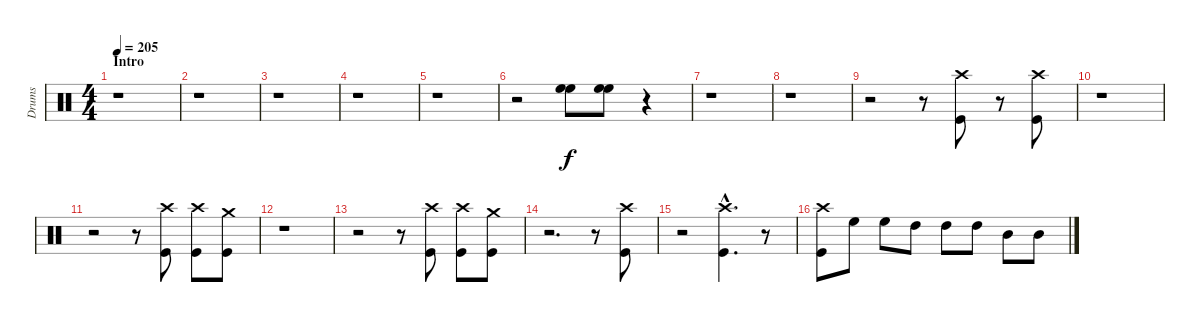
\track ("Drums" "Drums") {instrument percussion}
\staff {score}
\articulation defaults
\ts (4 4)
\section ("" "Intro")
\tempo 205
\clef neutral
\ks c
r.1{dy f} |
r.1 |
r.1 |
r.1 |
r.1 |
r.2 ("High Floor Tom (hit)" "High Floor Tom (hit)").8{balance 16} ("High Floor Tom (hit)" "High Floor Tom (hit)").8{balance 0} r.4{balance 8} |
r.1 |
r.1 |
r.2 r.8 ("Crash high (hit)" "Kick (hit)").8 r.8 ("Crash high (hit)" "Kick (hit)").8 |
r.1 |
r.2 r.8 ("Crash high (hit)" "Kick (hit)").8 ("Crash high (hit)" "Kick (hit)").8 ("Crash medium (hit)" "Kick (hit)").8 |
r.1 |
r.2 r.8 ("Crash high (hit)" "Kick (hit)").8 ("Crash high (hit)" "Kick (hit)").8 ("Crash medium (hit)" "Kick (hit)").8 |
r.2{d} r.8 ("Crash high (hit)" "Kick (hit)").8 |
r.2 ("Crash high (hit)"{hac} "Kick (hit)"{hac}).4{d} r.8 |
("Crash high (hit)" "Kick (hit)").8 "High Floor Tom (hit)".8 "High Floor Tom (hit)".8 "High Tom (hit)".8 "High Tom (hit)".8 "High Tom (hit)".8 "Mid Tom (hit)".8 "Mid Tom (hit)".8
